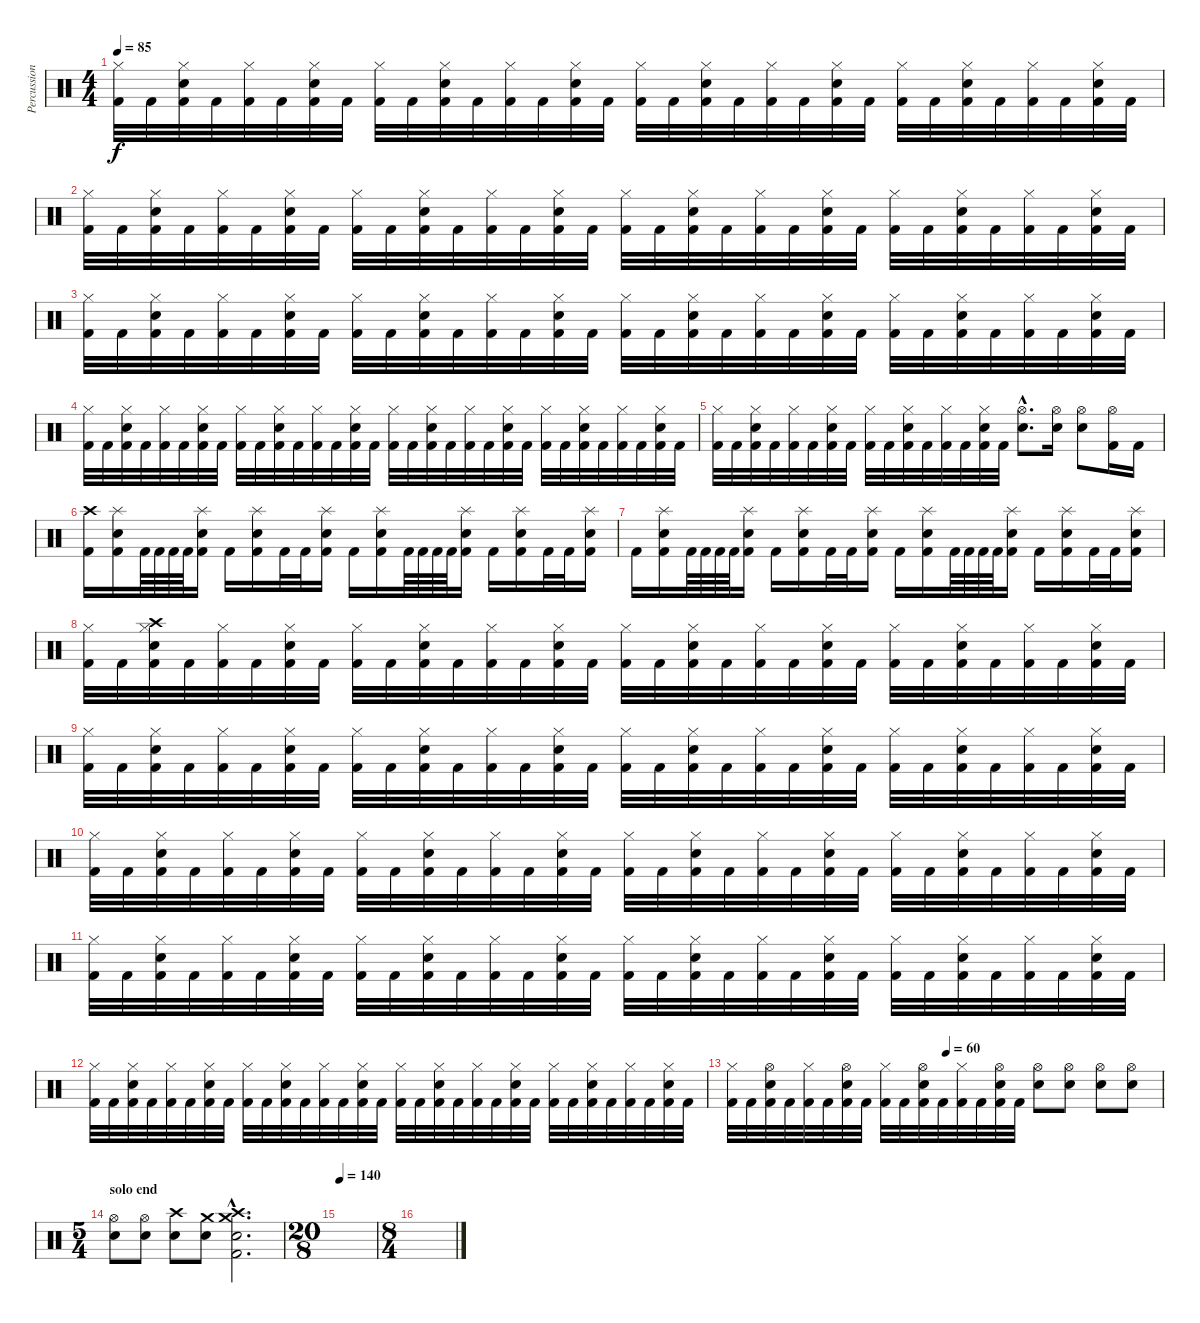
\track ("Percussion" "Percussion") {instrument percussion}
\staff {score}
\articulation defaults
\ts (4 4)
\tempo 85
\clef neutral
\ks c
("Hi-Hat (closed)" "Kick (hit) 2").32{dy f} "Kick (hit) 2".32 ("Hi-Hat (closed)" "Snare (hit) 2" "Kick (hit) 2").32 "Kick (hit) 2".32 ("Hi-Hat (closed)" "Kick (hit) 2").32 "Kick (hit) 2".32 ("Hi-Hat (closed)" "Snare (hit) 2" "Kick (hit) 2").32 "Kick (hit) 2".32 ("Hi-Hat (closed)" "Kick (hit) 2").32 "Kick (hit) 2".32 ("Hi-Hat (closed)" "Snare (hit) 2" "Kick (hit) 2").32 "Kick (hit) 2".32 ("Hi-Hat (closed)" "Kick (hit) 2").32 "Kick (hit) 2".32 ("Hi-Hat (closed)" "Snare (hit) 2" "Kick (hit) 2").32 "Kick (hit) 2".32 ("Hi-Hat (closed)" "Kick (hit) 2").32 "Kick (hit) 2".32 ("Hi-Hat (closed)" "Snare (hit) 2" "Kick (hit) 2").32 "Kick (hit) 2".32 ("Hi-Hat (closed)" "Kick (hit) 2").32 "Kick (hit) 2".32 ("Hi-Hat (closed)" "Snare (hit) 2" "Kick (hit) 2").32 "Kick (hit) 2".32 ("Hi-Hat (closed)" "Kick (hit) 2").32 "Kick (hit) 2".32 ("Hi-Hat (closed)" "Snare (hit) 2" "Kick (hit) 2").32 "Kick (hit) 2".32 ("Hi-Hat (closed)" "Kick (hit) 2").32 "Kick (hit) 2".32 ("Hi-Hat (closed)" "Snare (hit) 2" "Kick (hit) 2").32 "Kick (hit) 2".32 |
("Hi-Hat (closed)" "Kick (hit) 2").32 "Kick (hit) 2".32 ("Hi-Hat (closed)" "Snare (hit) 2" "Kick (hit) 2").32 "Kick (hit) 2".32 ("Hi-Hat (closed)" "Kick (hit) 2").32 "Kick (hit) 2".32 ("Hi-Hat (closed)" "Snare (hit) 2" "Kick (hit) 2").32 "Kick (hit) 2".32 ("Hi-Hat (closed)" "Kick (hit) 2").32 "Kick (hit) 2".32 ("Hi-Hat (closed)" "Snare (hit) 2" "Kick (hit) 2").32 "Kick (hit) 2".32 ("Hi-Hat (closed)" "Kick (hit) 2").32 "Kick (hit) 2".32 ("Hi-Hat (closed)" "Snare (hit) 2" "Kick (hit) 2").32 "Kick (hit) 2".32 ("Hi-Hat (closed)" "Kick (hit) 2").32 "Kick (hit) 2".32 ("Hi-Hat (closed)" "Snare (hit) 2" "Kick (hit) 2").32 "Kick (hit) 2".32 ("Hi-Hat (closed)" "Kick (hit) 2").32 "Kick (hit) 2".32 ("Hi-Hat (closed)" "Snare (hit) 2" "Kick (hit) 2").32 "Kick (hit) 2".32 ("Hi-Hat (closed)" "Kick (hit) 2").32 "Kick (hit) 2".32 ("Hi-Hat (closed)" "Snare (hit) 2" "Kick (hit) 2").32 "Kick (hit) 2".32 ("Hi-Hat (closed)" "Kick (hit) 2").32 "Kick (hit) 2".32 ("Hi-Hat (closed)" "Snare (hit) 2" "Kick (hit) 2").32 "Kick (hit) 2".32 |
("Hi-Hat (closed)" "Kick (hit) 2").32 "Kick (hit) 2".32 ("Hi-Hat (closed)" "Snare (hit) 2" "Kick (hit) 2").32 "Kick (hit) 2".32 ("Hi-Hat (closed)" "Kick (hit) 2").32 "Kick (hit) 2".32 ("Hi-Hat (closed)" "Snare (hit) 2" "Kick (hit) 2").32 "Kick (hit) 2".32 ("Hi-Hat (closed)" "Kick (hit) 2").32 "Kick (hit) 2".32 ("Hi-Hat (closed)" "Snare (hit) 2" "Kick (hit) 2").32 "Kick (hit) 2".32 ("Hi-Hat (closed)" "Kick (hit) 2").32 "Kick (hit) 2".32 ("Hi-Hat (closed)" "Snare (hit) 2" "Kick (hit) 2").32 "Kick (hit) 2".32 ("Hi-Hat (closed)" "Kick (hit) 2").32 "Kick (hit) 2".32 ("Hi-Hat (closed)" "Snare (hit) 2" "Kick (hit) 2").32 "Kick (hit) 2".32 ("Hi-Hat (closed)" "Kick (hit) 2").32 "Kick (hit) 2".32 ("Hi-Hat (closed)" "Snare (hit) 2" "Kick (hit) 2").32 "Kick (hit) 2".32 ("Hi-Hat (closed)" "Kick (hit) 2").32 "Kick (hit) 2".32 ("Hi-Hat (closed)" "Snare (hit) 2" "Kick (hit) 2").32 "Kick (hit) 2".32 ("Hi-Hat (closed)" "Kick (hit) 2").32 "Kick (hit) 2".32 ("Hi-Hat (closed)" "Snare (hit) 2" "Kick (hit) 2").32 "Kick (hit) 2".32 |
("Hi-Hat (closed)" "Kick (hit) 2").32 "Kick (hit) 2".32 ("Hi-Hat (closed)" "Snare (hit) 2" "Kick (hit) 2").32 "Kick (hit) 2".32 ("Hi-Hat (closed)" "Kick (hit) 2").32 "Kick (hit) 2".32 ("Hi-Hat (closed)" "Snare (hit) 2" "Kick (hit) 2").32 "Kick (hit) 2".32 ("Hi-Hat (closed)" "Kick (hit) 2").32 "Kick (hit) 2".32 ("Hi-Hat (closed)" "Snare (hit) 2" "Kick (hit) 2").32 "Kick (hit) 2".32 ("Hi-Hat (closed)" "Kick (hit) 2").32 "Kick (hit) 2".32 ("Hi-Hat (closed)" "Snare (hit) 2" "Kick (hit) 2").32 "Kick (hit) 2".32 ("Hi-Hat (closed)" "Kick (hit) 2").32 "Kick (hit) 2".32 ("Hi-Hat (closed)" "Snare (hit) 2" "Kick (hit) 2").32 "Kick (hit) 2".32 ("Hi-Hat (closed)" "Kick (hit) 2").32 "Kick (hit) 2".32 ("Hi-Hat (closed)" "Snare (hit) 2" "Kick (hit) 2").32 "Kick (hit) 2".32 ("Hi-Hat (closed)" "Kick (hit) 2").32 "Kick (hit) 2".32 ("Hi-Hat (closed)" "Snare (hit) 2" "Kick (hit) 2").32 "Kick (hit) 2".32 ("Hi-Hat (closed)" "Kick (hit) 2").32 "Kick (hit) 2".32 ("Hi-Hat (closed)" "Snare (hit) 2" "Kick (hit) 2").32 "Kick (hit) 2".32 |
("Hi-Hat (closed)" "Kick (hit) 2").32 "Kick (hit) 2".32 ("Hi-Hat (closed)" "Snare (hit) 2" "Kick (hit) 2").32 "Kick (hit) 2".32 ("Hi-Hat (closed)" "Kick (hit) 2").32 "Kick (hit) 2".32 ("Hi-Hat (closed)" "Snare (hit) 2" "Kick (hit) 2").32 "Kick (hit) 2".32 ("Hi-Hat (closed)" "Kick (hit) 2").32 "Kick (hit) 2".32 ("Hi-Hat (closed)" "Snare (hit) 2" "Kick (hit) 2").32 "Kick (hit) 2".32 ("Hi-Hat (closed)" "Kick (hit) 2").32 "Kick (hit) 2".32 ("Hi-Hat (closed)" "Snare (hit) 2" "Kick (hit) 2").32 "Kick (hit) 2".32 ("Hi-Hat (open)"{hac} "Snare (hit) 2"{hac}).8{d} ("Hi-Hat (open)" "Snare (hit) 2").16 ("Hi-Hat (open)" "Snare (hit) 2").8 ("Hi-Hat (open)" "Kick (hit) 2").16 "Kick (hit) 2".16 |
("Crash high (hit)" "Kick (hit) 2").16 ("Snare (hit) 2" "Splash (hit)" "Kick (hit) 2").16 "Kick (hit) 2".64 "Kick (hit) 2".64 "Kick (hit) 2".64 "Kick (hit) 2".64 ("Snare (hit) 2" "Splash (hit)" "Kick (hit) 2").16 "Kick (hit) 2".16 ("Snare (hit) 2" "Splash (hit)" "Kick (hit) 2").16 "Kick (hit) 2".32 "Kick (hit) 2".32 ("Snare (hit) 2" "Splash (hit)" "Kick (hit) 2").16 "Kick (hit) 2".16 ("Snare (hit) 2" "Splash (hit)" "Kick (hit) 2").16 "Kick (hit) 2".64 "Kick (hit) 2".64 "Kick (hit) 2".64 "Kick (hit) 2".64 ("Snare (hit) 2" "Splash (hit)" "Kick (hit) 2").16 "Kick (hit) 2".16 ("Snare (hit) 2" "Splash (hit)" "Kick (hit) 2").16 "Kick (hit) 2".32 "Kick (hit) 2".32 ("Snare (hit) 2" "Splash (hit)" "Kick (hit) 2").16 |
"Kick (hit) 2".16 ("Snare (hit) 2" "Splash (hit)" "Kick (hit) 2").16 "Kick (hit) 2".64 "Kick (hit) 2".64 "Kick (hit) 2".64 "Kick (hit) 2".64 ("Snare (hit) 2" "Splash (hit)" "Kick (hit) 2").16 "Kick (hit) 2".16 ("Snare (hit) 2" "Splash (hit)" "Kick (hit) 2").16 "Kick (hit) 2".32 "Kick (hit) 2".32 ("Snare (hit) 2" "Splash (hit)" "Kick (hit) 2").16 "Kick (hit) 2".16 ("Snare (hit) 2" "Splash (hit)" "Kick (hit) 2").16 "Kick (hit) 2".64 "Kick (hit) 2".64 "Kick (hit) 2".64 "Kick (hit) 2".64 ("Snare (hit) 2" "Splash (hit)" "Kick (hit) 2").16 "Kick (hit) 2".16 ("Snare (hit) 2" "Splash (hit)" "Kick (hit) 2").16 "Kick (hit) 2".32 "Kick (hit) 2".32 ("Snare (hit) 2" "Splash (hit)" "Kick (hit) 2").16 |
("Hi-Hat (closed)" "Kick (hit) 2").32 "Kick (hit) 2".32 ("Hi-Hat (closed)" "Snare (hit) 2" "Kick (hit) 2" "Crash high (hit)").32 "Kick (hit) 2".32 ("Hi-Hat (closed)" "Kick (hit) 2").32 "Kick (hit) 2".32 ("Hi-Hat (closed)" "Snare (hit) 2" "Kick (hit) 2").32 "Kick (hit) 2".32 ("Hi-Hat (closed)" "Kick (hit) 2").32 "Kick (hit) 2".32 ("Hi-Hat (closed)" "Snare (hit) 2" "Kick (hit) 2").32 "Kick (hit) 2".32 ("Hi-Hat (closed)" "Kick (hit) 2").32 "Kick (hit) 2".32 ("Hi-Hat (closed)" "Snare (hit) 2" "Kick (hit) 2").32 "Kick (hit) 2".32 ("Hi-Hat (closed)" "Kick (hit) 2").32 "Kick (hit) 2".32 ("Hi-Hat (closed)" "Snare (hit) 2" "Kick (hit) 2").32 "Kick (hit) 2".32 ("Hi-Hat (closed)" "Kick (hit) 2").32 "Kick (hit) 2".32 ("Hi-Hat (closed)" "Snare (hit) 2" "Kick (hit) 2").32 "Kick (hit) 2".32 ("Hi-Hat (closed)" "Kick (hit) 2").32 "Kick (hit) 2".32 ("Hi-Hat (closed)" "Snare (hit) 2" "Kick (hit) 2").32 "Kick (hit) 2".32 ("Hi-Hat (closed)" "Kick (hit) 2").32 "Kick (hit) 2".32 ("Hi-Hat (closed)" "Snare (hit) 2" "Kick (hit) 2").32 "Kick (hit) 2".32 |
("Hi-Hat (closed)" "Kick (hit) 2").32 "Kick (hit) 2".32 ("Hi-Hat (closed)" "Snare (hit) 2" "Kick (hit) 2").32 "Kick (hit) 2".32 ("Hi-Hat (closed)" "Kick (hit) 2").32 "Kick (hit) 2".32 ("Hi-Hat (closed)" "Snare (hit) 2" "Kick (hit) 2").32 "Kick (hit) 2".32 ("Hi-Hat (closed)" "Kick (hit) 2").32 "Kick (hit) 2".32 ("Hi-Hat (closed)" "Snare (hit) 2" "Kick (hit) 2").32 "Kick (hit) 2".32 ("Hi-Hat (closed)" "Kick (hit) 2").32 "Kick (hit) 2".32 ("Hi-Hat (closed)" "Snare (hit) 2" "Kick (hit) 2").32 "Kick (hit) 2".32 ("Hi-Hat (closed)" "Kick (hit) 2").32 "Kick (hit) 2".32 ("Hi-Hat (closed)" "Snare (hit) 2" "Kick (hit) 2").32 "Kick (hit) 2".32 ("Hi-Hat (closed)" "Kick (hit) 2").32 "Kick (hit) 2".32 ("Hi-Hat (closed)" "Snare (hit) 2" "Kick (hit) 2").32 "Kick (hit) 2".32 ("Hi-Hat (closed)" "Kick (hit) 2").32 "Kick (hit) 2".32 ("Hi-Hat (closed)" "Snare (hit) 2" "Kick (hit) 2").32 "Kick (hit) 2".32 ("Hi-Hat (closed)" "Kick (hit) 2").32 "Kick (hit) 2".32 ("Hi-Hat (closed)" "Snare (hit) 2" "Kick (hit) 2").32 "Kick (hit) 2".32 |
("Hi-Hat (closed)" "Kick (hit) 2").32 "Kick (hit) 2".32 ("Hi-Hat (closed)" "Snare (hit) 2" "Kick (hit) 2").32 "Kick (hit) 2".32 ("Hi-Hat (closed)" "Kick (hit) 2").32 "Kick (hit) 2".32 ("Hi-Hat (closed)" "Snare (hit) 2" "Kick (hit) 2").32 "Kick (hit) 2".32 ("Hi-Hat (closed)" "Kick (hit) 2").32 "Kick (hit) 2".32 ("Hi-Hat (closed)" "Snare (hit) 2" "Kick (hit) 2").32 "Kick (hit) 2".32 ("Hi-Hat (closed)" "Kick (hit) 2").32 "Kick (hit) 2".32 ("Hi-Hat (closed)" "Snare (hit) 2" "Kick (hit) 2").32 "Kick (hit) 2".32 ("Hi-Hat (closed)" "Kick (hit) 2").32 "Kick (hit) 2".32 ("Hi-Hat (closed)" "Snare (hit) 2" "Kick (hit) 2").32 "Kick (hit) 2".32 ("Hi-Hat (closed)" "Kick (hit) 2").32 "Kick (hit) 2".32 ("Hi-Hat (closed)" "Snare (hit) 2" "Kick (hit) 2").32 "Kick (hit) 2".32 ("Hi-Hat (closed)" "Kick (hit) 2").32 "Kick (hit) 2".32 ("Hi-Hat (closed)" "Snare (hit) 2" "Kick (hit) 2").32 "Kick (hit) 2".32 ("Hi-Hat (closed)" "Kick (hit) 2").32 "Kick (hit) 2".32 ("Hi-Hat (closed)" "Snare (hit) 2" "Kick (hit) 2").32 "Kick (hit) 2".32 |
("Hi-Hat (closed)" "Kick (hit) 2").32 "Kick (hit) 2".32 ("Hi-Hat (closed)" "Snare (hit) 2" "Kick (hit) 2").32 "Kick (hit) 2".32 ("Hi-Hat (closed)" "Kick (hit) 2").32 "Kick (hit) 2".32 ("Hi-Hat (closed)" "Snare (hit) 2" "Kick (hit) 2").32 "Kick (hit) 2".32 ("Hi-Hat (closed)" "Kick (hit) 2").32 "Kick (hit) 2".32 ("Hi-Hat (closed)" "Snare (hit) 2" "Kick (hit) 2").32 "Kick (hit) 2".32 ("Hi-Hat (closed)" "Kick (hit) 2").32 "Kick (hit) 2".32 ("Hi-Hat (closed)" "Snare (hit) 2" "Kick (hit) 2").32 "Kick (hit) 2".32 ("Hi-Hat (closed)" "Kick (hit) 2").32 "Kick (hit) 2".32 ("Hi-Hat (closed)" "Snare (hit) 2" "Kick (hit) 2").32 "Kick (hit) 2".32 ("Hi-Hat (closed)" "Kick (hit) 2").32 "Kick (hit) 2".32 ("Hi-Hat (closed)" "Snare (hit) 2" "Kick (hit) 2").32 "Kick (hit) 2".32 ("Hi-Hat (closed)" "Kick (hit) 2").32 "Kick (hit) 2".32 ("Hi-Hat (closed)" "Snare (hit) 2" "Kick (hit) 2").32 "Kick (hit) 2".32 ("Hi-Hat (closed)" "Kick (hit) 2").32 "Kick (hit) 2".32 ("Hi-Hat (closed)" "Snare (hit) 2" "Kick (hit) 2").32 "Kick (hit) 2".32 |
("Hi-Hat (closed)" "Kick (hit) 2").32 "Kick (hit) 2".32 ("Hi-Hat (closed)" "Snare (hit) 2" "Kick (hit) 2").32 "Kick (hit) 2".32 ("Hi-Hat (closed)" "Kick (hit) 2").32 "Kick (hit) 2".32 ("Hi-Hat (closed)" "Snare (hit) 2" "Kick (hit) 2").32 "Kick (hit) 2".32 ("Hi-Hat (closed)" "Kick (hit) 2").32 "Kick (hit) 2".32 ("Hi-Hat (closed)" "Snare (hit) 2" "Kick (hit) 2").32 "Kick (hit) 2".32 ("Hi-Hat (closed)" "Kick (hit) 2").32 "Kick (hit) 2".32 ("Hi-Hat (closed)" "Snare (hit) 2" "Kick (hit) 2").32 "Kick (hit) 2".32 ("Hi-Hat (closed)" "Kick (hit) 2").32 "Kick (hit) 2".32 ("Hi-Hat (closed)" "Snare (hit) 2" "Kick (hit) 2").32 "Kick (hit) 2".32 ("Hi-Hat (closed)" "Kick (hit) 2").32 "Kick (hit) 2".32 ("Hi-Hat (closed)" "Snare (hit) 2" "Kick (hit) 2").32 "Kick (hit) 2".32 ("Hi-Hat (closed)" "Kick (hit) 2").32 "Kick (hit) 2".32 ("Hi-Hat (closed)" "Snare (hit) 2" "Kick (hit) 2").32 "Kick (hit) 2".32 ("Hi-Hat (closed)" "Kick (hit) 2").32 "Kick (hit) 2".32 ("Hi-Hat (closed)" "Snare (hit) 2" "Kick (hit) 2").32 "Kick (hit) 2".32 |
\tempo (60 0.5)
("Hi-Hat (closed)" "Kick (hit) 2").32 "Kick (hit) 2".32 ("Hi-Hat (open)" "Snare (hit) 2" "Kick (hit) 2").32 "Kick (hit) 2".32 ("Hi-Hat (closed)" "Kick (hit) 2").32 "Kick (hit) 2".32 ("Hi-Hat (open)" "Snare (hit) 2" "Kick (hit) 2").32 "Kick (hit) 2".32 ("Hi-Hat (closed)" "Kick (hit) 2").32 "Kick (hit) 2".32 ("Hi-Hat (open)" "Snare (hit) 2" "Kick (hit) 2").32 "Kick (hit) 2".32 ("Hi-Hat (closed)" "Kick (hit) 2").32 "Kick (hit) 2".32 ("Hi-Hat (open)" "Snare (hit) 2" "Kick (hit) 2").32 "Kick (hit) 2".32 ("Hi-Hat (open)" "Snare (hit) 2").8 ("Hi-Hat (open)" "Snare (hit) 2").8 ("Hi-Hat (open)" "Snare (hit) 2").8 ("Hi-Hat (open)" "Snare (hit) 2").8 |
\ts (5 4)
\section ("" "solo end")
("Hi-Hat (open)" "Snare (hit) 2").8 ("Hi-Hat (open)" "Snare (hit) 2").8 ("Crash high (hit)" "Snare (hit) 2").8 ("Crash medium (hit)" "Snare (hit) 2").8 ("Crash medium (hit)"{hac} "Crash high (hit)"{hac} "Snare (hit) 2"{hac} "Kick (hit) 2"{hac}).2{d} |
\ts (20 8)
\tempo 140
|
\ts (8 4)
